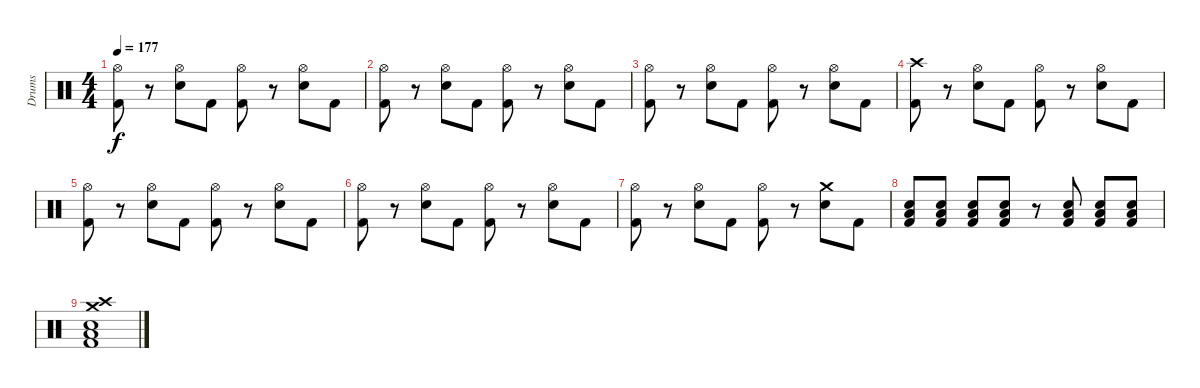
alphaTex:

\track ("Drums" "Drums") {instrument percussion}
\staff {score}
\articulation defaults
\ts (4 4)
\tempo 177
\clef neutral
\ks c
("Hi-Hat (open)" "Kick (hit) 2").8{dy f} r.8 ("Hi-Hat (open)" "Snare (hit) 2").8 "Kick (hit) 2".8 ("Hi-Hat (open)" "Kick (hit) 2").8 r.8 ("Hi-Hat (open)" "Snare (hit) 2").8 "Kick (hit) 2".8 |
("Hi-Hat (open)" "Kick (hit) 2").8 r.8 ("Hi-Hat (open)" "Snare (hit) 2").8 "Kick (hit) 2".8 ("Hi-Hat (open)" "Kick (hit) 2").8 r.8 ("Hi-Hat (open)" "Snare (hit) 2").8 "Kick (hit) 2".8 |
("Hi-Hat (open)" "Kick (hit) 2").8 r.8 ("Hi-Hat (open)" "Snare (hit) 2").8 "Kick (hit) 2".8 ("Hi-Hat (open)" "Kick (hit) 2").8 r.8 ("Hi-Hat (open)" "Snare (hit) 2").8 "Kick (hit) 2".8 |
("Crash high (hit)" "Kick (hit) 2").8 r.8 ("Hi-Hat (open)" "Snare (hit) 2").8 "Kick (hit) 2".8 ("Hi-Hat (open)" "Kick (hit) 2").8 r.8 ("Hi-Hat (open)" "Snare (hit) 2").8 "Kick (hit) 2".8 |
("Hi-Hat (open)" "Kick (hit) 2").8 r.8 ("Hi-Hat (open)" "Snare (hit) 2").8 "Kick (hit) 2".8 ("Hi-Hat (open)" "Kick (hit) 2").8 r.8 ("Hi-Hat (open)" "Snare (hit) 2").8 "Kick (hit) 2".8 |
("Hi-Hat (open)" "Kick (hit) 2").8 r.8 ("Hi-Hat (open)" "Snare (hit) 2").8 "Kick (hit) 2".8 ("Hi-Hat (open)" "Kick (hit) 2").8 r.8 ("Hi-Hat (open)" "Snare (hit) 2").8 "Kick (hit) 2".8 |
("Hi-Hat (open)" "Kick (hit) 2").8 r.8 ("Hi-Hat (open)" "Snare (hit) 2").8 "Kick (hit) 2".8 ("Hi-Hat (open)" "Kick (hit) 2").8 r.8 ("Crash medium (hit)" "Snare (hit) 2").8 "Kick (hit) 2".8 |
("Low Floor Tom (hit)" "Snare (hit) 2" "Kick (hit) 2").8 ("Low Floor Tom (hit)" "Snare (hit) 2" "Kick (hit) 2").8 ("Low Floor Tom (hit)" "Snare (hit) 2" "Kick (hit) 2").8 ("Low Floor Tom (hit)" "Snare (hit) 2" "Kick (hit) 2").8 r.8 ("Low Floor Tom (hit)" "Snare (hit) 2" "Kick (hit) 2").8 ("Low Floor Tom (hit)" "Snare (hit) 2" "Kick (hit) 2").8 ("Low Floor Tom (hit)" "Snare (hit) 2" "Kick (hit) 2").8 |
("Crash medium (hit)" "Crash high (hit)" "Low Floor Tom (hit)" "Snare (hit) 2" "Kick (hit) 2").1
